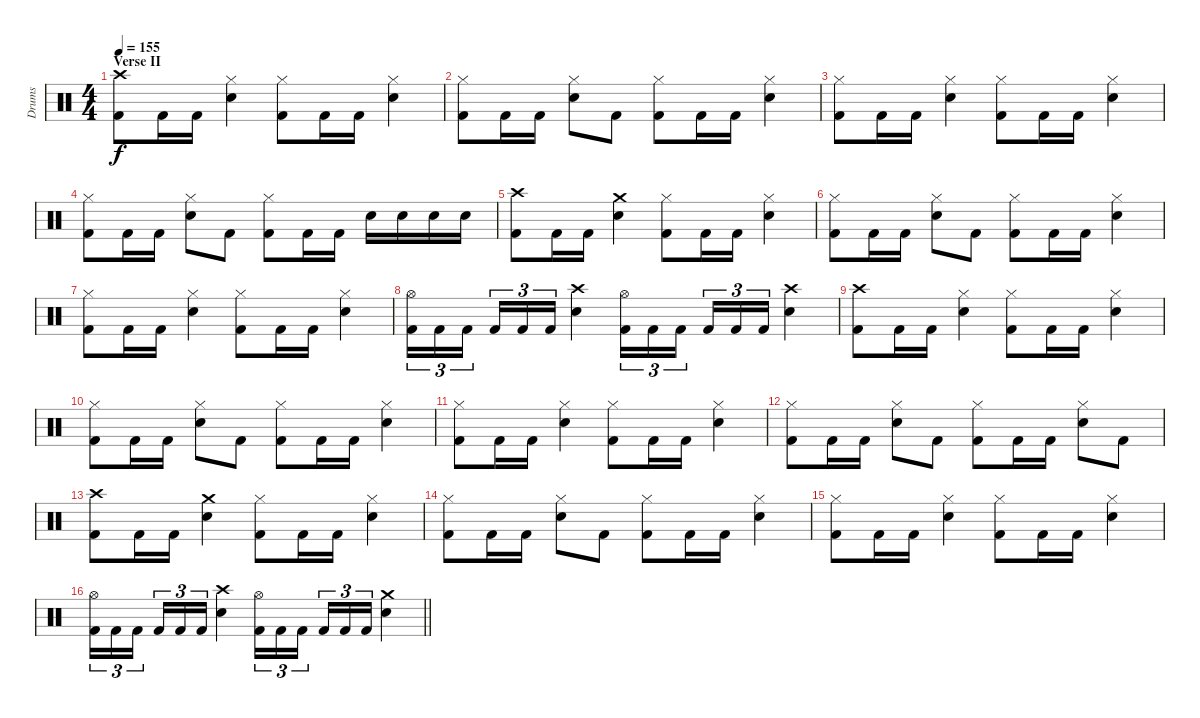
\track ("Drums" "Drums") {instrument percussion}
\staff {score}
\articulation defaults
\ts (4 4)
\section ("" "Verse II")
\tempo 155
\clef neutral
\ks c
("Crash high (hit)" "Kick (hit) 2").8{dy f} "Kick (hit) 2".16 "Kick (hit) 2".16 ("Hi-Hat (closed)" "Snare (hit) 2").4 ("Hi-Hat (closed)" "Kick (hit) 2").8 "Kick (hit) 2".16 "Kick (hit) 2".16 ("Hi-Hat (closed)" "Snare (hit) 2").4 |
("Hi-Hat (closed)" "Kick (hit) 2").8 "Kick (hit) 2".16 "Kick (hit) 2".16 ("Hi-Hat (closed)" "Snare (hit) 2").8 "Kick (hit) 2".8 ("Hi-Hat (closed)" "Kick (hit) 2").8 "Kick (hit) 2".16 "Kick (hit) 2".16 ("Hi-Hat (closed)" "Snare (hit) 2").4 |
("Hi-Hat (closed)" "Kick (hit) 2").8 "Kick (hit) 2".16 "Kick (hit) 2".16 ("Hi-Hat (closed)" "Snare (hit) 2").4 ("Hi-Hat (closed)" "Kick (hit) 2").8 "Kick (hit) 2".16 "Kick (hit) 2".16 ("Hi-Hat (closed)" "Snare (hit) 2").4 |
("Hi-Hat (closed)" "Kick (hit) 2").8 "Kick (hit) 2".16 "Kick (hit) 2".16 ("Hi-Hat (closed)" "Snare (hit) 2").8 "Kick (hit) 2".8 ("Hi-Hat (closed)" "Kick (hit) 2").8 "Kick (hit) 2".16 "Kick (hit) 2".16 "Snare (hit) 2".16 "Snare (hit) 2".16 "Snare (hit) 2".16 "Snare (hit) 2".16 |
("Crash high (hit)" "Kick (hit) 2").8 "Kick (hit) 2".16 "Kick (hit) 2".16 ("Crash medium (hit)" "Snare (hit) 2").4 ("Hi-Hat (closed)" "Kick (hit) 2").8 "Kick (hit) 2".16 "Kick (hit) 2".16 ("Hi-Hat (closed)" "Snare (hit) 2").4 |
("Hi-Hat (closed)" "Kick (hit) 2").8 "Kick (hit) 2".16 "Kick (hit) 2".16 ("Hi-Hat (closed)" "Snare (hit) 2").8 "Kick (hit) 2".8 ("Hi-Hat (closed)" "Kick (hit) 2").8 "Kick (hit) 2".16 "Kick (hit) 2".16 ("Hi-Hat (closed)" "Snare (hit) 2").4 |
("Hi-Hat (closed)" "Kick (hit) 2").8 "Kick (hit) 2".16 "Kick (hit) 2".16 ("Hi-Hat (closed)" "Snare (hit) 2").4 ("Hi-Hat (closed)" "Kick (hit) 2").8 "Kick (hit) 2".16 "Kick (hit) 2".16 ("Hi-Hat (closed)" "Snare (hit) 2").4 |
("Hi-Hat (open)" "Kick (hit) 2").16{tu (3 2)} "Kick (hit) 2".16{tu (3 2)} "Kick (hit) 2".16{tu (3 2) beam splitsecondary} "Kick (hit) 2".16{tu (3 2)} "Kick (hit) 2".16{tu (3 2)} "Kick (hit) 2".16{tu (3 2)} ("Crash high (hit)" "Snare (hit) 2").4 ("Hi-Hat (open)" "Kick (hit) 2").16{tu (3 2)} "Kick (hit) 2".16{tu (3 2)} "Kick (hit) 2".16{tu (3 2) beam splitsecondary} "Kick (hit) 2".16{tu (3 2)} "Kick (hit) 2".16{tu (3 2)} "Kick (hit) 2".16{tu (3 2)} ("Crash high (hit)" "Snare (hit) 2").4 |
("Crash high (hit)" "Kick (hit) 2").8 "Kick (hit) 2".16 "Kick (hit) 2".16 ("Hi-Hat (closed)" "Snare (hit) 2").4 ("Hi-Hat (closed)" "Kick (hit) 2").8 "Kick (hit) 2".16 "Kick (hit) 2".16 ("Hi-Hat (closed)" "Snare (hit) 2").4 |
("Hi-Hat (closed)" "Kick (hit) 2").8 "Kick (hit) 2".16 "Kick (hit) 2".16 ("Hi-Hat (closed)" "Snare (hit) 2").8 "Kick (hit) 2".8 ("Hi-Hat (closed)" "Kick (hit) 2").8 "Kick (hit) 2".16 "Kick (hit) 2".16 ("Hi-Hat (closed)" "Snare (hit) 2").4 |
("Hi-Hat (closed)" "Kick (hit) 2").8 "Kick (hit) 2".16 "Kick (hit) 2".16 ("Hi-Hat (closed)" "Snare (hit) 2").4 ("Hi-Hat (closed)" "Kick (hit) 2").8 "Kick (hit) 2".16 "Kick (hit) 2".16 ("Hi-Hat (closed)" "Snare (hit) 2").4 |
("Hi-Hat (closed)" "Kick (hit) 2").8 "Kick (hit) 2".16 "Kick (hit) 2".16 ("Hi-Hat (closed)" "Snare (hit) 2").8 "Kick (hit) 2".8 ("Hi-Hat (closed)" "Kick (hit) 2").8 "Kick (hit) 2".16 "Kick (hit) 2".16 ("Hi-Hat (closed)" "Snare (hit) 2").8 "Kick (hit) 2".8 |
("Crash high (hit)" "Kick (hit) 2").8 "Kick (hit) 2".16 "Kick (hit) 2".16 ("Crash medium (hit)" "Snare (hit) 2").4 ("Hi-Hat (closed)" "Kick (hit) 2").8 "Kick (hit) 2".16 "Kick (hit) 2".16 ("Hi-Hat (closed)" "Snare (hit) 2").4 |
("Hi-Hat (closed)" "Kick (hit) 2").8 "Kick (hit) 2".16 "Kick (hit) 2".16 ("Hi-Hat (closed)" "Snare (hit) 2").8 "Kick (hit) 2".8 ("Hi-Hat (closed)" "Kick (hit) 2").8 "Kick (hit) 2".16 "Kick (hit) 2".16 ("Hi-Hat (closed)" "Snare (hit) 2").4 |
("Hi-Hat (closed)" "Kick (hit) 2").8 "Kick (hit) 2".16 "Kick (hit) 2".16 ("Hi-Hat (closed)" "Snare (hit) 2").4 ("Hi-Hat (closed)" "Kick (hit) 2").8 "Kick (hit) 2".16 "Kick (hit) 2".16 ("Hi-Hat (closed)" "Snare (hit) 2").4 |
\barLineRight lightlight
("Hi-Hat (open)" "Kick (hit) 2").16{tu (3 2)} "Kick (hit) 2".16{tu (3 2)} "Kick (hit) 2".16{tu (3 2) beam splitsecondary} "Kick (hit) 2".16{tu (3 2)} "Kick (hit) 2".16{tu (3 2)} "Kick (hit) 2".16{tu (3 2)} ("Crash high (hit)" "Snare (hit) 2").4 ("Hi-Hat (open)" "Kick (hit) 2").16{tu (3 2)} "Kick (hit) 2".16{tu (3 2)} "Kick (hit) 2".16{tu (3 2) beam splitsecondary} "Kick (hit) 2".16{tu (3 2)} "Kick (hit) 2".16{tu (3 2)} "Kick (hit) 2".16{tu (3 2)} ("Crash medium (hit)" "Snare (hit) 2").4
